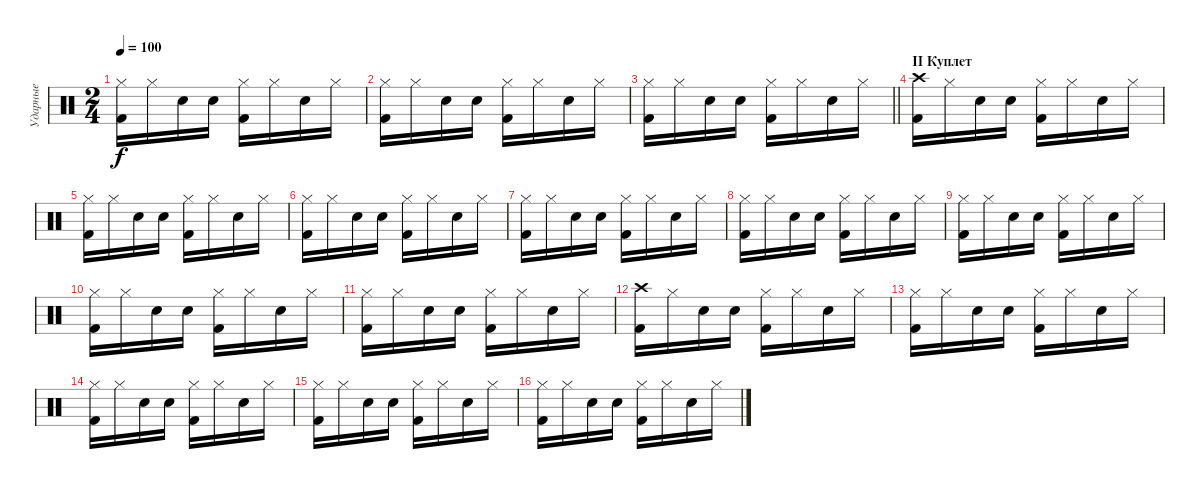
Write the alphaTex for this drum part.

\track ("Ударные" "Ударные") {instrument percussion}
\staff {score}
\articulation defaults
\ts (2 4)
\tempo 100
\clef neutral
\ks c
("Hi-Hat (closed)" "Kick (hit) 2").16{dy f} "Hi-Hat (closed)".16 "Electric Snare (hit)".16 "Electric Snare (hit)".16 ("Kick (hit) 2" "Hi-Hat (closed)").16 "Hi-Hat (closed)".16 "Electric Snare (hit)".16 "Hi-Hat (closed)".16 |
("Hi-Hat (closed)" "Kick (hit) 2").16 "Hi-Hat (closed)".16 "Electric Snare (hit)".16 "Electric Snare (hit)".16 ("Kick (hit) 2" "Hi-Hat (closed)").16 "Hi-Hat (closed)".16 "Electric Snare (hit)".16 "Hi-Hat (closed)".16 |
\barLineRight lightlight
("Hi-Hat (closed)" "Kick (hit) 2").16 "Hi-Hat (closed)".16 "Electric Snare (hit)".16 "Electric Snare (hit)".16 ("Kick (hit) 2" "Hi-Hat (closed)").16 "Hi-Hat (closed)".16 "Electric Snare (hit)".16 "Hi-Hat (closed)".16 |
\section ("" "II Куплет")
("Crash high (hit)" "Kick (hit) 2").16 "Hi-Hat (closed)".16 "Electric Snare (hit)".16 "Electric Snare (hit)".16 ("Kick (hit) 2" "Hi-Hat (closed)").16 "Hi-Hat (closed)".16 "Electric Snare (hit)".16 "Hi-Hat (closed)".16 |
("Hi-Hat (closed)" "Kick (hit) 2").16 "Hi-Hat (closed)".16 "Electric Snare (hit)".16 "Electric Snare (hit)".16 ("Kick (hit) 2" "Hi-Hat (closed)").16 "Hi-Hat (closed)".16 "Electric Snare (hit)".16 "Hi-Hat (closed)".16 |
("Hi-Hat (closed)" "Kick (hit) 2").16 "Hi-Hat (closed)".16 "Electric Snare (hit)".16 "Electric Snare (hit)".16 ("Kick (hit) 2" "Hi-Hat (closed)").16 "Hi-Hat (closed)".16 "Electric Snare (hit)".16 "Hi-Hat (closed)".16 |
("Hi-Hat (closed)" "Kick (hit) 2").16 "Hi-Hat (closed)".16 "Electric Snare (hit)".16 "Electric Snare (hit)".16 ("Kick (hit) 2" "Hi-Hat (closed)").16 "Hi-Hat (closed)".16 "Electric Snare (hit)".16 "Hi-Hat (closed)".16 |
("Hi-Hat (closed)" "Kick (hit) 2").16 "Hi-Hat (closed)".16 "Electric Snare (hit)".16 "Electric Snare (hit)".16 ("Kick (hit) 2" "Hi-Hat (closed)").16 "Hi-Hat (closed)".16 "Electric Snare (hit)".16 "Hi-Hat (closed)".16 |
("Hi-Hat (closed)" "Kick (hit) 2").16 "Hi-Hat (closed)".16 "Electric Snare (hit)".16 "Electric Snare (hit)".16 ("Kick (hit) 2" "Hi-Hat (closed)").16 "Hi-Hat (closed)".16 "Electric Snare (hit)".16 "Hi-Hat (closed)".16 |
("Hi-Hat (closed)" "Kick (hit) 2").16 "Hi-Hat (closed)".16 "Electric Snare (hit)".16 "Electric Snare (hit)".16 ("Kick (hit) 2" "Hi-Hat (closed)").16 "Hi-Hat (closed)".16 "Electric Snare (hit)".16 "Hi-Hat (closed)".16 |
("Hi-Hat (closed)" "Kick (hit) 2").16 "Hi-Hat (closed)".16 "Electric Snare (hit)".16 "Electric Snare (hit)".16 ("Kick (hit) 2" "Hi-Hat (closed)").16 "Hi-Hat (closed)".16 "Electric Snare (hit)".16 "Hi-Hat (closed)".16 |
("Crash high (hit)" "Kick (hit) 2").16 "Hi-Hat (closed)".16 "Electric Snare (hit)".16 "Electric Snare (hit)".16 ("Kick (hit) 2" "Hi-Hat (closed)").16 "Hi-Hat (closed)".16 "Electric Snare (hit)".16 "Hi-Hat (closed)".16 |
("Hi-Hat (closed)" "Kick (hit) 2").16 "Hi-Hat (closed)".16 "Electric Snare (hit)".16 "Electric Snare (hit)".16 ("Kick (hit) 2" "Hi-Hat (closed)").16 "Hi-Hat (closed)".16 "Electric Snare (hit)".16 "Hi-Hat (closed)".16 |
("Hi-Hat (closed)" "Kick (hit) 2").16 "Hi-Hat (closed)".16 "Electric Snare (hit)".16 "Electric Snare (hit)".16 ("Kick (hit) 2" "Hi-Hat (closed)").16 "Hi-Hat (closed)".16 "Electric Snare (hit)".16 "Hi-Hat (closed)".16 |
("Hi-Hat (closed)" "Kick (hit) 2").16 "Hi-Hat (closed)".16 "Electric Snare (hit)".16 "Electric Snare (hit)".16 ("Kick (hit) 2" "Hi-Hat (closed)").16 "Hi-Hat (closed)".16 "Electric Snare (hit)".16 "Hi-Hat (closed)".16 |
("Hi-Hat (closed)" "Kick (hit) 2").16 "Hi-Hat (closed)".16 "Electric Snare (hit)".16 "Electric Snare (hit)".16 ("Kick (hit) 2" "Hi-Hat (closed)").16 "Hi-Hat (closed)".16 "Electric Snare (hit)".16 "Hi-Hat (closed)".16
